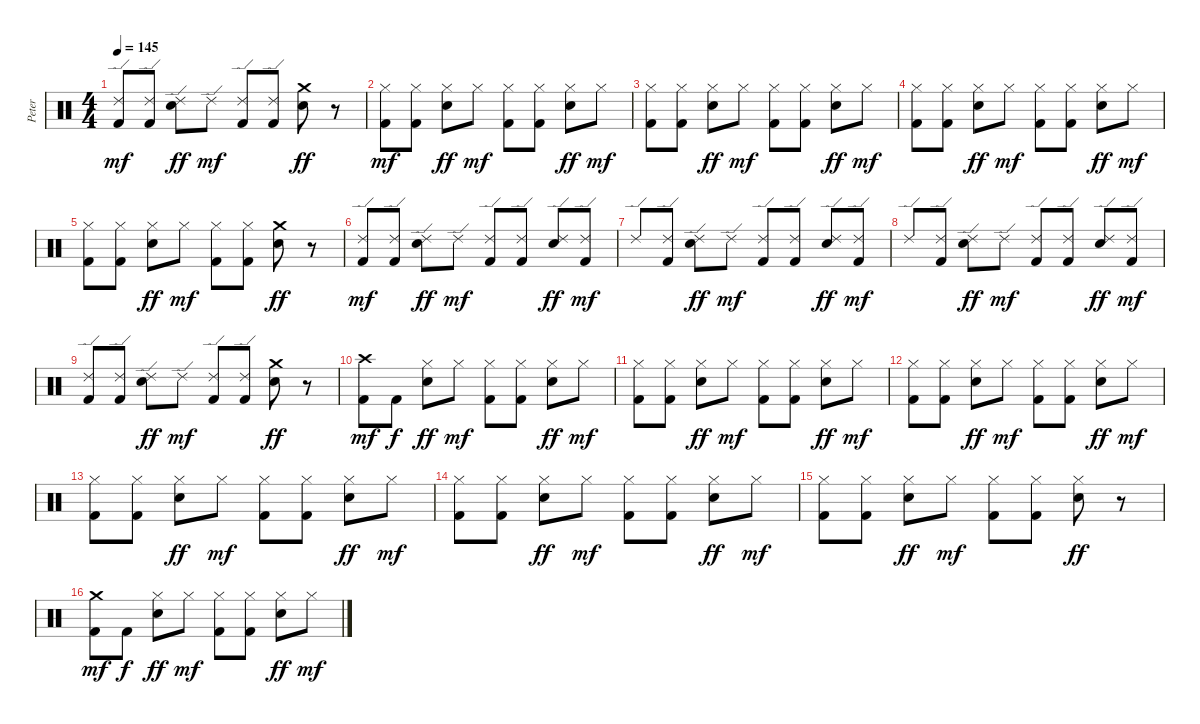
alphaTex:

\track ("Peter" "Peter") {instrument percussion}
\staff {score}
\articulation defaults
\ts (4 4)
\tempo 145
\clef neutral
\ks c
("Ride (edge) 2" "Kick (hit) 2").8{dy mf} ("Ride (edge) 2" "Kick (hit) 2").8 ("Ride (edge) 2" "Electric Snare (hit)").8{dy ff} "Ride (edge) 2".8{dy mf} ("Ride (edge) 2" "Kick (hit) 2").8 ("Ride (edge) 2" "Kick (hit) 2").8 ("Crash medium (hit)" "Electric Snare (hit)").8{dy ff} r.8 |
("Hi-Hat (closed)" "Kick (hit) 2").8{dy mf} ("Hi-Hat (closed)" "Kick (hit) 2").8 ("Hi-Hat (closed)" "Electric Snare (hit)").8{dy ff} "Hi-Hat (closed)".8{dy mf} ("Hi-Hat (closed)" "Kick (hit) 2").8 ("Hi-Hat (closed)" "Kick (hit) 2").8 ("Hi-Hat (closed)" "Electric Snare (hit)").8{dy ff} "Hi-Hat (closed)".8{dy mf} |
("Hi-Hat (closed)" "Kick (hit) 2").8 ("Hi-Hat (closed)" "Kick (hit) 2").8 ("Hi-Hat (closed)" "Electric Snare (hit)").8{dy ff} "Hi-Hat (closed)".8{dy mf} ("Hi-Hat (closed)" "Kick (hit) 2").8 ("Hi-Hat (closed)" "Kick (hit) 2").8 ("Hi-Hat (closed)" "Electric Snare (hit)").8{dy ff} "Hi-Hat (closed)".8{dy mf} |
("Hi-Hat (closed)" "Kick (hit) 2").8 ("Hi-Hat (closed)" "Kick (hit) 2").8 ("Hi-Hat (closed)" "Electric Snare (hit)").8{dy ff} "Hi-Hat (closed)".8{dy mf} ("Hi-Hat (closed)" "Kick (hit) 2").8 ("Hi-Hat (closed)" "Kick (hit) 2").8 ("Hi-Hat (closed)" "Electric Snare (hit)").8{dy ff} "Hi-Hat (closed)".8{dy mf} |
("Hi-Hat (closed)" "Kick (hit) 2").8 ("Hi-Hat (closed)" "Kick (hit) 2").8 ("Hi-Hat (closed)" "Electric Snare (hit)").8{dy ff} "Hi-Hat (closed)".8{dy mf} ("Hi-Hat (closed)" "Kick (hit) 2").8 ("Hi-Hat (closed)" "Kick (hit) 2").8 ("Crash medium (hit)" "Electric Snare (hit)").8{dy ff} r.8 |
("Ride (edge) 2" "Kick (hit) 2").8{dy mf} ("Ride (edge) 2" "Kick (hit) 2").8 ("Ride (edge) 2" "Electric Snare (hit)").8{dy ff} "Ride (edge) 2".8{dy mf} ("Ride (edge) 2" "Kick (hit) 2").8 ("Ride (edge) 2" "Kick (hit) 2").8 ("Ride (edge) 2" "Electric Snare (hit)").8{dy ff} ("Ride (edge) 2" "Kick (hit) 2").8{dy mf} |
"Ride (edge) 2".8 ("Ride (edge) 2" "Kick (hit) 2").8 ("Ride (edge) 2" "Electric Snare (hit)").8{dy ff} "Ride (edge) 2".8{dy mf} ("Ride (edge) 2" "Kick (hit) 2").8 ("Ride (edge) 2" "Kick (hit) 2").8 ("Ride (edge) 2" "Electric Snare (hit)").8{dy ff} ("Ride (edge) 2" "Kick (hit) 2").8{dy mf} |
"Ride (edge) 2".8 ("Ride (edge) 2" "Kick (hit) 2").8 ("Ride (edge) 2" "Electric Snare (hit)").8{dy ff} "Ride (edge) 2".8{dy mf} ("Ride (edge) 2" "Kick (hit) 2").8 ("Ride (edge) 2" "Kick (hit) 2").8 ("Ride (edge) 2" "Electric Snare (hit)").8{dy ff} ("Ride (edge) 2" "Kick (hit) 2").8{dy mf} |
("Ride (edge) 2" "Kick (hit) 2").8 ("Ride (edge) 2" "Kick (hit) 2").8 ("Ride (edge) 2" "Electric Snare (hit)").8{dy ff} "Ride (edge) 2".8{dy mf} ("Ride (edge) 2" "Kick (hit) 2").8 ("Ride (edge) 2" "Kick (hit) 2").8 ("Crash medium (hit)" "Electric Snare (hit)").8{dy ff} r.8 |
("Crash high (hit)" "Kick (hit) 2").8{dy mf} "Kick (hit) 2".8{dy f} ("Hi-Hat (closed)" "Electric Snare (hit)").8{dy ff} "Hi-Hat (closed)".8{dy mf} ("Hi-Hat (closed)" "Kick (hit) 2").8 ("Hi-Hat (closed)" "Kick (hit) 2").8 ("Hi-Hat (closed)" "Electric Snare (hit)").8{dy ff} "Hi-Hat (closed)".8{dy mf} |
("Hi-Hat (closed)" "Kick (hit) 2").8 ("Hi-Hat (closed)" "Kick (hit) 2").8 ("Hi-Hat (closed)" "Electric Snare (hit)").8{dy ff} "Hi-Hat (closed)".8{dy mf} ("Hi-Hat (closed)" "Kick (hit) 2").8 ("Hi-Hat (closed)" "Kick (hit) 2").8 ("Hi-Hat (closed)" "Electric Snare (hit)").8{dy ff} "Hi-Hat (closed)".8{dy mf} |
("Hi-Hat (closed)" "Kick (hit) 2").8 ("Hi-Hat (closed)" "Kick (hit) 2").8 ("Hi-Hat (closed)" "Electric Snare (hit)").8{dy ff} "Hi-Hat (closed)".8{dy mf} ("Hi-Hat (closed)" "Kick (hit) 2").8 ("Hi-Hat (closed)" "Kick (hit) 2").8 ("Hi-Hat (closed)" "Electric Snare (hit)").8{dy ff} "Hi-Hat (closed)".8{dy mf} |
("Hi-Hat (closed)" "Kick (hit) 2").8 ("Hi-Hat (closed)" "Kick (hit) 2").8 ("Hi-Hat (closed)" "Electric Snare (hit)").8{dy ff} "Hi-Hat (closed)".8{dy mf} ("Hi-Hat (closed)" "Kick (hit) 2").8 ("Hi-Hat (closed)" "Kick (hit) 2").8 ("Hi-Hat (closed)" "Electric Snare (hit)").8{dy ff} "Hi-Hat (closed)".8{dy mf} |
("Hi-Hat (closed)" "Kick (hit) 2").8 ("Hi-Hat (closed)" "Kick (hit) 2").8 ("Hi-Hat (closed)" "Electric Snare (hit)").8{dy ff} "Hi-Hat (closed)".8{dy mf} ("Hi-Hat (closed)" "Kick (hit) 2").8 ("Hi-Hat (closed)" "Kick (hit) 2").8 ("Hi-Hat (closed)" "Electric Snare (hit)").8{dy ff} "Hi-Hat (closed)".8{dy mf} |
("Hi-Hat (closed)" "Kick (hit) 2").8 ("Hi-Hat (closed)" "Kick (hit) 2").8 ("Hi-Hat (closed)" "Electric Snare (hit)").8{dy ff} "Hi-Hat (closed)".8{dy mf} ("Hi-Hat (closed)" "Kick (hit) 2").8 ("Hi-Hat (closed)" "Kick (hit) 2").8 ("Hi-Hat (closed)" "Electric Snare (hit)").8{dy ff} r.8 |
("Crash medium (hit)" "Kick (hit) 2").8{dy mf} "Kick (hit) 2".8{dy f} ("Hi-Hat (closed)" "Electric Snare (hit)").8{dy ff} "Hi-Hat (closed)".8{dy mf} ("Hi-Hat (closed)" "Kick (hit) 2").8 ("Hi-Hat (closed)" "Kick (hit) 2").8 ("Hi-Hat (closed)" "Electric Snare (hit)").8{dy ff} "Hi-Hat (closed)".8{dy mf}
